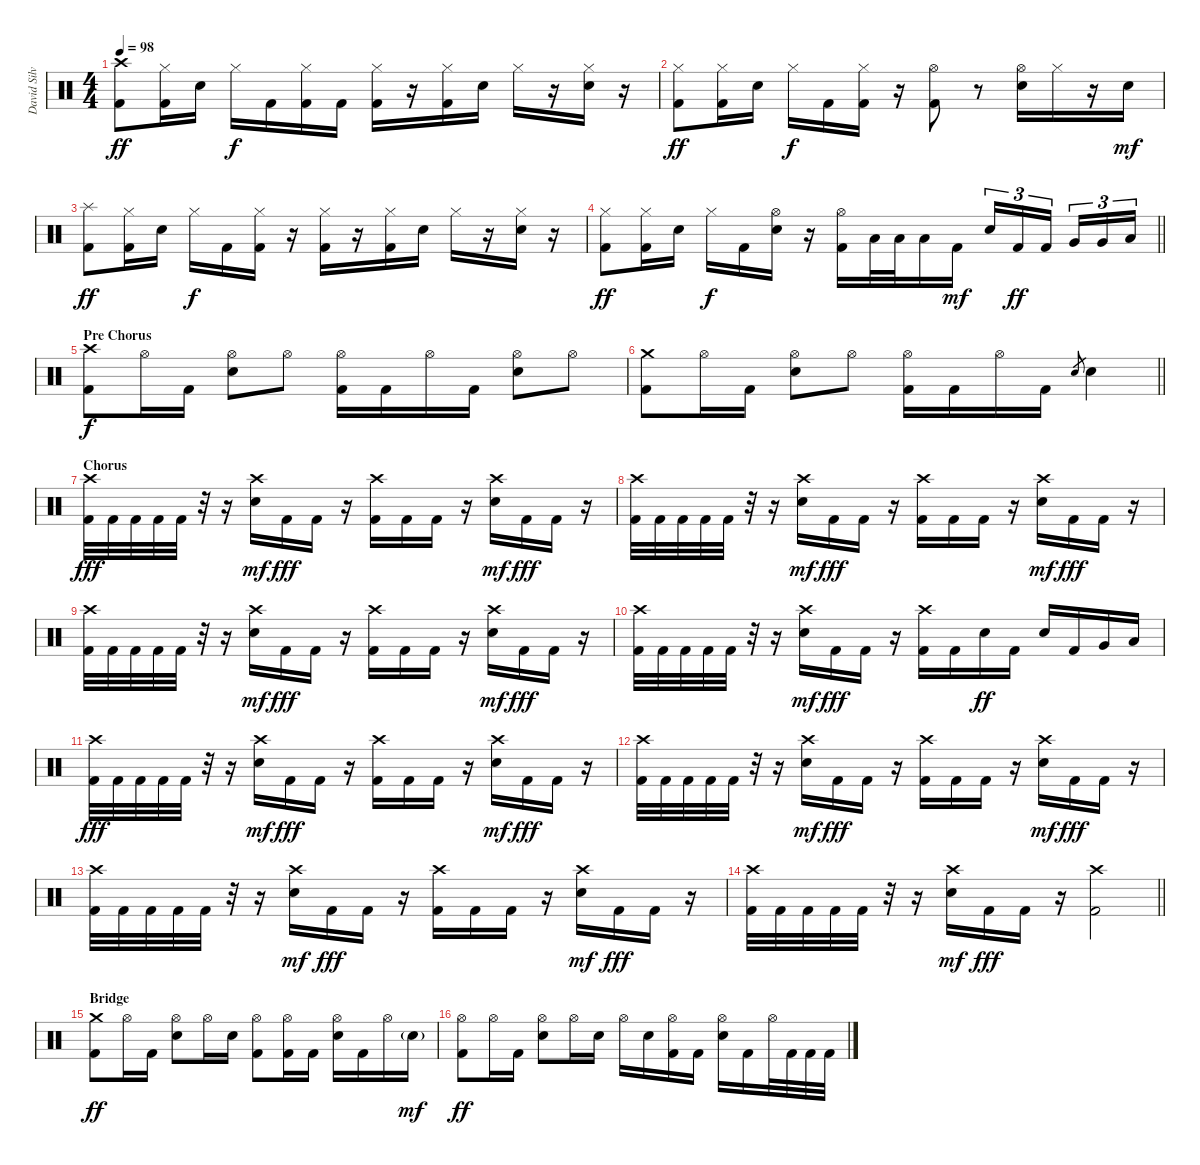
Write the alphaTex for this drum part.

\track ("David Silveria" "David Silv") {instrument percussion}
\staff {score}
\articulation defaults
\ts (4 4)
\tempo 98
\clef neutral
\ks c
("Crash high (hit)" "Kick (hit) 2").8{dy ff} ("Hi-Hat (closed)" "Kick (hit) 2").16 "Snare (hit) 2".16 "Hi-Hat (closed)".16{dy f} "Kick (hit) 2".16 ("Hi-Hat (closed)" "Kick (hit) 2").16 "Kick (hit) 2".16 ("Hi-Hat (closed)" "Kick (hit) 2").16 r.16 ("Hi-Hat (closed)" "Kick (hit) 2").16 "Snare (hit) 2".16 "Hi-Hat (closed)".16 r.16 ("Hi-Hat (closed)" "Snare (hit) 2").16 r.16 |
("Hi-Hat (closed)" "Kick (hit) 2").8{dy ff} ("Hi-Hat (closed)" "Kick (hit) 2").16 "Snare (hit) 2".16 "Hi-Hat (closed)".16{dy f} "Kick (hit) 2".16 ("Hi-Hat (closed)" "Kick (hit) 2").16 r.16 ("Hi-Hat (open)" "Kick (hit) 2").8 r.8 ("Hi-Hat (open)" "Snare (hit) 2").16 "Hi-Hat (closed)".16 r.16 "Snare (hit) 2".16{dy mf} |
("Splash (hit)" "Kick (hit) 2").8{dy ff} ("Hi-Hat (closed)" "Kick (hit) 2").16 "Snare (hit) 2".16 "Hi-Hat (closed)".16{dy f} "Kick (hit) 2".16 ("Hi-Hat (closed)" "Kick (hit) 2").16 r.16 ("Hi-Hat (closed)" "Kick (hit) 2").16 r.16 ("Hi-Hat (closed)" "Kick (hit) 2").16 "Snare (hit) 2".16 "Hi-Hat (closed)".16 r.16 ("Hi-Hat (closed)" "Snare (hit) 2").16 r.16 |
\barLineRight lightlight
("Hi-Hat (closed)" "Kick (hit) 2").8{dy ff} ("Hi-Hat (closed)" "Kick (hit) 2").16 "Snare (hit) 2".16 "Hi-Hat (closed)".16{dy f} "Kick (hit) 2".16 ("Hi-Hat (open)" "Snare (hit) 2").16 r.16 ("Hi-Hat (open)" "Kick (hit) 2").16 "Low Floor Tom (hit)".32 "Low Floor Tom (hit)".32 "Low Floor Tom (hit)".16 "Kick (hit) 2".16{dy mf} "Snare (hit) 2".16{tu (3 2)} "Kick (hit) 2".16{tu (3 2) dy ff} "Kick (hit) 2".16{tu (3 2) beam splitsecondary} "Very Low Tom (hit)".16{tu (3 2)} "Very Low Tom (hit)".16{tu (3 2)} "Low Floor Tom (hit)".16{tu (3 2)} |
\section ("" "Pre Chorus")
("Crash high (hit)" "Kick (hit) 2").8{dy f} "Hi-Hat (open)".16 "Kick (hit) 2".16 ("Hi-Hat (open)" "Snare (hit) 2").8 "Hi-Hat (open)".8 ("Hi-Hat (open)" "Kick (hit) 2").16 "Kick (hit) 2".16 "Hi-Hat (open)".16 "Kick (hit) 2".16 ("Hi-Hat (open)" "Snare (hit) 2").8 "Hi-Hat (open)".8 |
\barLineRight lightlight
("Crash medium (hit)" "Kick (hit) 2").8 "Hi-Hat (open)".16 "Kick (hit) 2".16 ("Hi-Hat (open)" "Snare (hit) 2").8 "Hi-Hat (open)".8 ("Hi-Hat (open)" "Kick (hit) 2").16 "Kick (hit) 2".16 "Hi-Hat (open)".16 "Kick (hit) 2".16 "Snare (hit) 2".8{gr} "Snare (hit) 2".4 |
\section ("" "Chorus")
("Crash high (hit)" "Kick (hit) 2").32{dy fff} "Kick (hit) 2".32 "Kick (hit) 2".32 "Kick (hit) 2".32 "Kick (hit) 2".32 r.32 r.16 ("Crash high (hit)" "Snare (hit) 2").16{dy mf} "Kick (hit) 2".16{dy fff} "Kick (hit) 2".16 r.16 ("Crash high (hit)" "Kick (hit) 2").16 "Kick (hit) 2".16 "Kick (hit) 2".16 r.16 ("Crash high (hit)" "Snare (hit) 2").16{dy mf} "Kick (hit) 2".16{dy fff} "Kick (hit) 2".16 r.16 |
("Crash high (hit)" "Kick (hit) 2").32 "Kick (hit) 2".32 "Kick (hit) 2".32 "Kick (hit) 2".32 "Kick (hit) 2".32 r.32 r.16 ("Crash high (hit)" "Snare (hit) 2").16{dy mf} "Kick (hit) 2".16{dy fff} "Kick (hit) 2".16 r.16 ("Crash high (hit)" "Kick (hit) 2").16 "Kick (hit) 2".16 "Kick (hit) 2".16 r.16 ("Crash high (hit)" "Snare (hit) 2").16{dy mf} "Kick (hit) 2".16{dy fff} "Kick (hit) 2".16 r.16 |
("Crash high (hit)" "Kick (hit) 2").32 "Kick (hit) 2".32 "Kick (hit) 2".32 "Kick (hit) 2".32 "Kick (hit) 2".32 r.32 r.16 ("Crash high (hit)" "Snare (hit) 2").16{dy mf} "Kick (hit) 2".16{dy fff} "Kick (hit) 2".16 r.16 ("Crash high (hit)" "Kick (hit) 2").16 "Kick (hit) 2".16 "Kick (hit) 2".16 r.16 ("Crash high (hit)" "Snare (hit) 2").16{dy mf} "Kick (hit) 2".16{dy fff} "Kick (hit) 2".16 r.16 |
("Crash high (hit)" "Kick (hit) 2").32 "Kick (hit) 2".32 "Kick (hit) 2".32 "Kick (hit) 2".32 "Kick (hit) 2".32 r.32 r.16 ("Crash high (hit)" "Snare (hit) 2").16{dy mf} "Kick (hit) 2".16{dy fff} "Kick (hit) 2".16 r.16 ("Crash high (hit)" "Kick (hit) 2").16 "Kick (hit) 2".16 "Snare (hit) 2".16{dy ff} "Kick (hit) 2".16 "Snare (hit) 2".16 "Kick (hit) 2".16 "Very Low Tom (hit)".16 "Low Floor Tom (hit)".16 |
("Crash high (hit)" "Kick (hit) 2").32{dy fff} "Kick (hit) 2".32 "Kick (hit) 2".32 "Kick (hit) 2".32 "Kick (hit) 2".32 r.32 r.16 ("Crash high (hit)" "Snare (hit) 2").16{dy mf} "Kick (hit) 2".16{dy fff} "Kick (hit) 2".16 r.16 ("Crash high (hit)" "Kick (hit) 2").16 "Kick (hit) 2".16 "Kick (hit) 2".16 r.16 ("Crash high (hit)" "Snare (hit) 2").16{dy mf} "Kick (hit) 2".16{dy fff} "Kick (hit) 2".16 r.16 |
("Crash high (hit)" "Kick (hit) 2").32 "Kick (hit) 2".32 "Kick (hit) 2".32 "Kick (hit) 2".32 "Kick (hit) 2".32 r.32 r.16 ("Crash high (hit)" "Snare (hit) 2").16{dy mf} "Kick (hit) 2".16{dy fff} "Kick (hit) 2".16 r.16 ("Crash high (hit)" "Kick (hit) 2").16 "Kick (hit) 2".16 "Kick (hit) 2".16 r.16 ("Crash high (hit)" "Snare (hit) 2").16{dy mf} "Kick (hit) 2".16{dy fff} "Kick (hit) 2".16 r.16 |
("Crash high (hit)" "Kick (hit) 2").32 "Kick (hit) 2".32 "Kick (hit) 2".32 "Kick (hit) 2".32 "Kick (hit) 2".32 r.32 r.16 ("Crash high (hit)" "Snare (hit) 2").16{dy mf} "Kick (hit) 2".16{dy fff} "Kick (hit) 2".16 r.16 ("Crash high (hit)" "Kick (hit) 2").16 "Kick (hit) 2".16 "Kick (hit) 2".16 r.16 ("Crash high (hit)" "Snare (hit) 2").16{dy mf} "Kick (hit) 2".16{dy fff} "Kick (hit) 2".16 r.16 |
\barLineRight lightlight
("Crash high (hit)" "Kick (hit) 2").32 "Kick (hit) 2".32 "Kick (hit) 2".32 "Kick (hit) 2".32 "Kick (hit) 2".32 r.32 r.16 ("Crash high (hit)" "Snare (hit) 2").16{dy mf} "Kick (hit) 2".16{dy fff} "Kick (hit) 2".16 r.16 ("Crash high (hit)" "Kick (hit) 2").2 |
\section ("" "Bridge")
("Crash medium (hit)" "Kick (hit) 2").8{dy ff} "Hi-Hat (open)".16 "Kick (hit) 2".16 ("Hi-Hat (open)" "Snare (hit) 2").8 "Hi-Hat (open)".16 "Snare (hit) 2".16 ("Hi-Hat (open)" "Kick (hit) 2").8 ("Hi-Hat (open)" "Kick (hit) 2").16 "Kick (hit) 2".16 ("Hi-Hat (open)" "Snare (hit) 2").16 "Kick (hit) 2".16 "Hi-Hat (open)".16 "Snare (hit) 2"{g}.16{dy mf} |
("Hi-Hat (open)" "Kick (hit) 2").8{dy ff} "Hi-Hat (open)".16 "Kick (hit) 2".16 ("Hi-Hat (open)" "Snare (hit) 2").8 "Hi-Hat (open)".16 "Snare (hit) 2".16 "Hi-Hat (open)".16 "Snare (hit) 2".16 ("Hi-Hat (open)" "Kick (hit) 2").16 "Kick (hit) 2".16 ("Hi-Hat (open)" "Snare (hit) 2").16 "Kick (hit) 2".16 "Hi-Hat (open)".32 "Kick (hit) 2".32 "Kick (hit) 2".32 "Kick (hit) 2".32
